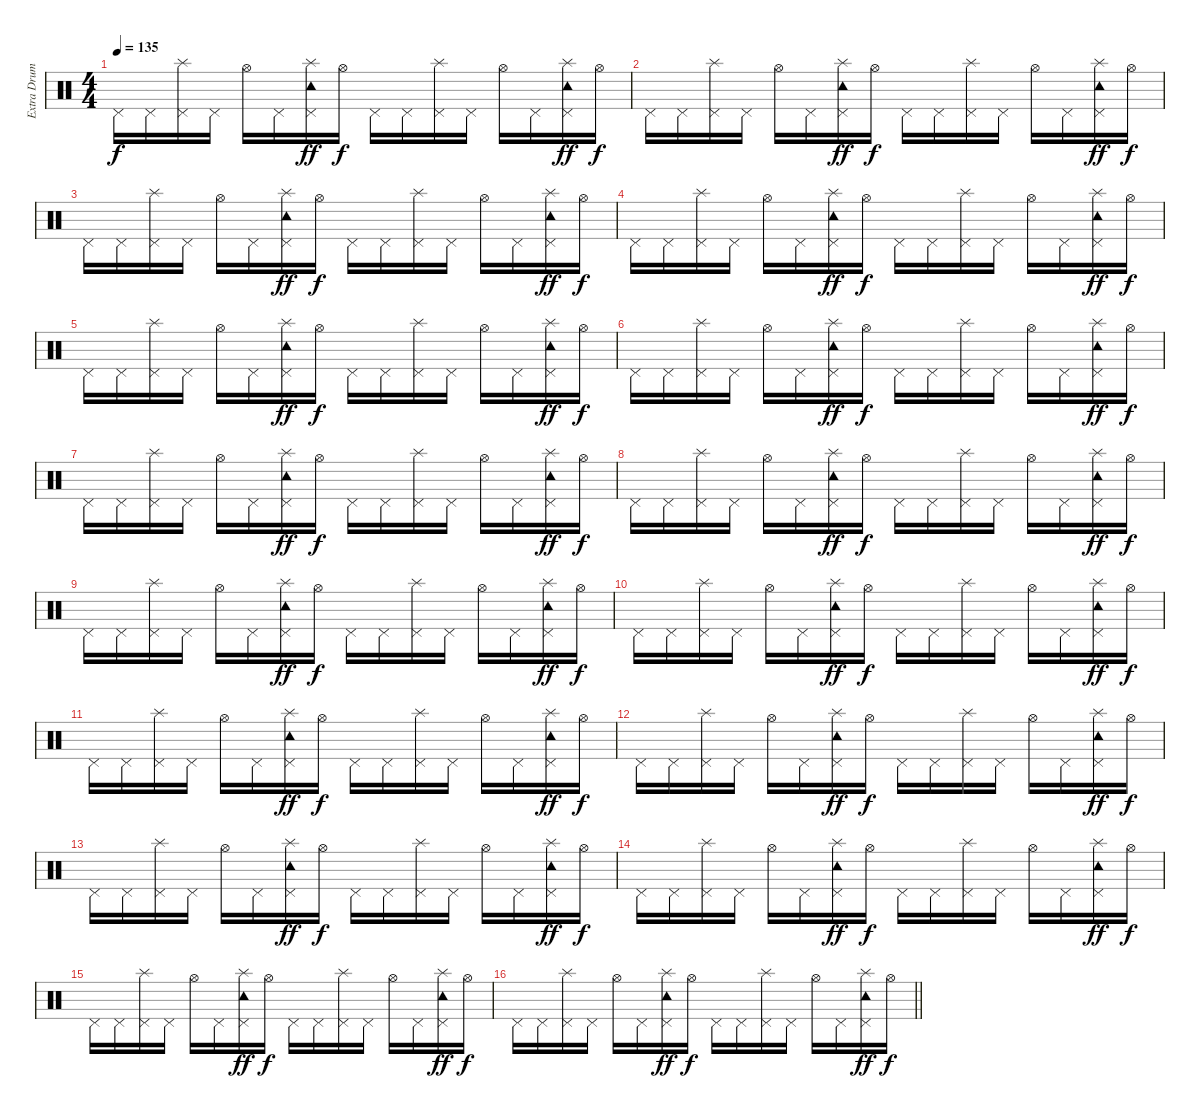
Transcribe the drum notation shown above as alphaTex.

\track ("Extra Drums" "Extra Drum") {instrument percussion}
\staff {score}
\articulation defaults
\ts (4 4)
\tempo 135
\clef neutral
\ks c "Pedal Hi-Hat (hit)".16{dy f} "Pedal Hi-Hat (hit)".16
("Pedal Hi-Hat (hit)" "Splash (hit)").16 "Pedal Hi-Hat (hit)".16 "Hi-Hat (open)".16 "Pedal Hi-Hat (hit)".16 ("Pedal Hi-Hat (hit)" "Tambourine (hit)" "Splash (hit)").16{dy ff} "Hi-Hat (open)".16{dy f} "Pedal Hi-Hat (hit)".16 "Pedal Hi-Hat (hit)".16 ("Pedal Hi-Hat (hit)" "Splash (hit)").16 "Pedal Hi-Hat (hit)".16 "Hi-Hat (open)".16 "Pedal Hi-Hat (hit)".16 ("Pedal Hi-Hat (hit)" "Tambourine (hit)" "Splash (hit)").16{dy ff} "Hi-Hat (open)".16{dy f} |
"Pedal Hi-Hat (hit)".16 "Pedal Hi-Hat (hit)".16 ("Pedal Hi-Hat (hit)" "Splash (hit)").16 "Pedal Hi-Hat (hit)".16 "Hi-Hat (open)".16 "Pedal Hi-Hat (hit)".16 ("Pedal Hi-Hat (hit)" "Tambourine (hit)" "Splash (hit)").16{dy ff} "Hi-Hat (open)".16{dy f} "Pedal Hi-Hat (hit)".16 "Pedal Hi-Hat (hit)".16 ("Pedal Hi-Hat (hit)" "Splash (hit)").16 "Pedal Hi-Hat (hit)".16 "Hi-Hat (open)".16 "Pedal Hi-Hat (hit)".16 ("Pedal Hi-Hat (hit)" "Tambourine (hit)" "Splash (hit)").16{dy ff} "Hi-Hat (open)".16{dy f} |
"Pedal Hi-Hat (hit)".16 "Pedal Hi-Hat (hit)".16 ("Pedal Hi-Hat (hit)" "Splash (hit)").16 "Pedal Hi-Hat (hit)".16 "Hi-Hat (open)".16 "Pedal Hi-Hat (hit)".16 ("Pedal Hi-Hat (hit)" "Tambourine (hit)" "Splash (hit)").16{dy ff} "Hi-Hat (open)".16{dy f} "Pedal Hi-Hat (hit)".16 "Pedal Hi-Hat (hit)".16 ("Pedal Hi-Hat (hit)" "Splash (hit)").16 "Pedal Hi-Hat (hit)".16 "Hi-Hat (open)".16 "Pedal Hi-Hat (hit)".16 ("Pedal Hi-Hat (hit)" "Tambourine (hit)" "Splash (hit)").16{dy ff} "Hi-Hat (open)".16{dy f} |
"Pedal Hi-Hat (hit)".16 "Pedal Hi-Hat (hit)".16 ("Pedal Hi-Hat (hit)" "Splash (hit)").16 "Pedal Hi-Hat (hit)".16 "Hi-Hat (open)".16 "Pedal Hi-Hat (hit)".16 ("Pedal Hi-Hat (hit)" "Tambourine (hit)" "Splash (hit)").16{dy ff} "Hi-Hat (open)".16{dy f} "Pedal Hi-Hat (hit)".16 "Pedal Hi-Hat (hit)".16 ("Pedal Hi-Hat (hit)" "Splash (hit)").16 "Pedal Hi-Hat (hit)".16 "Hi-Hat (open)".16 "Pedal Hi-Hat (hit)".16 ("Pedal Hi-Hat (hit)" "Tambourine (hit)" "Splash (hit)").16{dy ff} "Hi-Hat (open)".16{dy f} |
"Pedal Hi-Hat (hit)".16 "Pedal Hi-Hat (hit)".16 ("Pedal Hi-Hat (hit)" "Splash (hit)").16 "Pedal Hi-Hat (hit)".16 "Hi-Hat (open)".16 "Pedal Hi-Hat (hit)".16 ("Pedal Hi-Hat (hit)" "Tambourine (hit)" "Splash (hit)").16{dy ff} "Hi-Hat (open)".16{dy f} "Pedal Hi-Hat (hit)".16 "Pedal Hi-Hat (hit)".16 ("Pedal Hi-Hat (hit)" "Splash (hit)").16 "Pedal Hi-Hat (hit)".16 "Hi-Hat (open)".16 "Pedal Hi-Hat (hit)".16 ("Pedal Hi-Hat (hit)" "Tambourine (hit)" "Splash (hit)").16{dy ff} "Hi-Hat (open)".16{dy f} |
"Pedal Hi-Hat (hit)".16 "Pedal Hi-Hat (hit)".16 ("Pedal Hi-Hat (hit)" "Splash (hit)").16 "Pedal Hi-Hat (hit)".16 "Hi-Hat (open)".16 "Pedal Hi-Hat (hit)".16 ("Pedal Hi-Hat (hit)" "Tambourine (hit)" "Splash (hit)").16{dy ff} "Hi-Hat (open)".16{dy f} "Pedal Hi-Hat (hit)".16 "Pedal Hi-Hat (hit)".16 ("Pedal Hi-Hat (hit)" "Splash (hit)").16 "Pedal Hi-Hat (hit)".16 "Hi-Hat (open)".16 "Pedal Hi-Hat (hit)".16 ("Pedal Hi-Hat (hit)" "Tambourine (hit)" "Splash (hit)").16{dy ff} "Hi-Hat (open)".16{dy f} |
"Pedal Hi-Hat (hit)".16 "Pedal Hi-Hat (hit)".16 ("Pedal Hi-Hat (hit)" "Splash (hit)").16 "Pedal Hi-Hat (hit)".16 "Hi-Hat (open)".16 "Pedal Hi-Hat (hit)".16 ("Pedal Hi-Hat (hit)" "Tambourine (hit)" "Splash (hit)").16{dy ff} "Hi-Hat (open)".16{dy f} "Pedal Hi-Hat (hit)".16 "Pedal Hi-Hat (hit)".16 ("Pedal Hi-Hat (hit)" "Splash (hit)").16 "Pedal Hi-Hat (hit)".16 "Hi-Hat (open)".16 "Pedal Hi-Hat (hit)".16 ("Pedal Hi-Hat (hit)" "Tambourine (hit)" "Splash (hit)").16{dy ff} "Hi-Hat (open)".16{dy f} |
"Pedal Hi-Hat (hit)".16 "Pedal Hi-Hat (hit)".16 ("Pedal Hi-Hat (hit)" "Splash (hit)").16 "Pedal Hi-Hat (hit)".16 "Hi-Hat (open)".16 "Pedal Hi-Hat (hit)".16 ("Pedal Hi-Hat (hit)" "Tambourine (hit)" "Splash (hit)").16{dy ff} "Hi-Hat (open)".16{dy f} "Pedal Hi-Hat (hit)".16 "Pedal Hi-Hat (hit)".16 ("Pedal Hi-Hat (hit)" "Splash (hit)").16 "Pedal Hi-Hat (hit)".16 "Hi-Hat (open)".16 "Pedal Hi-Hat (hit)".16 ("Pedal Hi-Hat (hit)" "Tambourine (hit)" "Splash (hit)").16{dy ff} "Hi-Hat (open)".16{dy f} |
"Pedal Hi-Hat (hit)".16 "Pedal Hi-Hat (hit)".16 ("Pedal Hi-Hat (hit)" "Splash (hit)").16 "Pedal Hi-Hat (hit)".16 "Hi-Hat (open)".16 "Pedal Hi-Hat (hit)".16 ("Pedal Hi-Hat (hit)" "Tambourine (hit)" "Splash (hit)").16{dy ff} "Hi-Hat (open)".16{dy f} "Pedal Hi-Hat (hit)".16 "Pedal Hi-Hat (hit)".16 ("Pedal Hi-Hat (hit)" "Splash (hit)").16 "Pedal Hi-Hat (hit)".16 "Hi-Hat (open)".16 "Pedal Hi-Hat (hit)".16 ("Pedal Hi-Hat (hit)" "Tambourine (hit)" "Splash (hit)").16{dy ff} "Hi-Hat (open)".16{dy f} |
"Pedal Hi-Hat (hit)".16 "Pedal Hi-Hat (hit)".16 ("Pedal Hi-Hat (hit)" "Splash (hit)").16 "Pedal Hi-Hat (hit)".16 "Hi-Hat (open)".16 "Pedal Hi-Hat (hit)".16 ("Pedal Hi-Hat (hit)" "Tambourine (hit)" "Splash (hit)").16{dy ff} "Hi-Hat (open)".16{dy f} "Pedal Hi-Hat (hit)".16 "Pedal Hi-Hat (hit)".16 ("Pedal Hi-Hat (hit)" "Splash (hit)").16 "Pedal Hi-Hat (hit)".16 "Hi-Hat (open)".16 "Pedal Hi-Hat (hit)".16 ("Pedal Hi-Hat (hit)" "Tambourine (hit)" "Splash (hit)").16{dy ff} "Hi-Hat (open)".16{dy f} |
"Pedal Hi-Hat (hit)".16 "Pedal Hi-Hat (hit)".16 ("Pedal Hi-Hat (hit)" "Splash (hit)").16 "Pedal Hi-Hat (hit)".16 "Hi-Hat (open)".16 "Pedal Hi-Hat (hit)".16 ("Pedal Hi-Hat (hit)" "Tambourine (hit)" "Splash (hit)").16{dy ff} "Hi-Hat (open)".16{dy f} "Pedal Hi-Hat (hit)".16 "Pedal Hi-Hat (hit)".16 ("Pedal Hi-Hat (hit)" "Splash (hit)").16 "Pedal Hi-Hat (hit)".16 "Hi-Hat (open)".16 "Pedal Hi-Hat (hit)".16 ("Pedal Hi-Hat (hit)" "Tambourine (hit)" "Splash (hit)").16{dy ff} "Hi-Hat (open)".16{dy f} |
"Pedal Hi-Hat (hit)".16 "Pedal Hi-Hat (hit)".16 ("Pedal Hi-Hat (hit)" "Splash (hit)").16 "Pedal Hi-Hat (hit)".16 "Hi-Hat (open)".16 "Pedal Hi-Hat (hit)".16 ("Pedal Hi-Hat (hit)" "Tambourine (hit)" "Splash (hit)").16{dy ff} "Hi-Hat (open)".16{dy f} "Pedal Hi-Hat (hit)".16 "Pedal Hi-Hat (hit)".16 ("Pedal Hi-Hat (hit)" "Splash (hit)").16 "Pedal Hi-Hat (hit)".16 "Hi-Hat (open)".16 "Pedal Hi-Hat (hit)".16 ("Pedal Hi-Hat (hit)" "Tambourine (hit)" "Splash (hit)").16{dy ff} "Hi-Hat (open)".16{dy f} |
"Pedal Hi-Hat (hit)".16 "Pedal Hi-Hat (hit)".16 ("Pedal Hi-Hat (hit)" "Splash (hit)").16 "Pedal Hi-Hat (hit)".16 "Hi-Hat (open)".16 "Pedal Hi-Hat (hit)".16 ("Pedal Hi-Hat (hit)" "Tambourine (hit)" "Splash (hit)").16{dy ff} "Hi-Hat (open)".16{dy f} "Pedal Hi-Hat (hit)".16 "Pedal Hi-Hat (hit)".16 ("Pedal Hi-Hat (hit)" "Splash (hit)").16 "Pedal Hi-Hat (hit)".16 "Hi-Hat (open)".16 "Pedal Hi-Hat (hit)".16 ("Pedal Hi-Hat (hit)" "Tambourine (hit)" "Splash (hit)").16{dy ff} "Hi-Hat (open)".16{dy f} |
"Pedal Hi-Hat (hit)".16 "Pedal Hi-Hat (hit)".16 ("Pedal Hi-Hat (hit)" "Splash (hit)").16 "Pedal Hi-Hat (hit)".16 "Hi-Hat (open)".16 "Pedal Hi-Hat (hit)".16 ("Pedal Hi-Hat (hit)" "Tambourine (hit)" "Splash (hit)").16{dy ff} "Hi-Hat (open)".16{dy f} "Pedal Hi-Hat (hit)".16 "Pedal Hi-Hat (hit)".16 ("Pedal Hi-Hat (hit)" "Splash (hit)").16 "Pedal Hi-Hat (hit)".16 "Hi-Hat (open)".16 "Pedal Hi-Hat (hit)".16 ("Pedal Hi-Hat (hit)" "Tambourine (hit)" "Splash (hit)").16{dy ff} "Hi-Hat (open)".16{dy f} |
"Pedal Hi-Hat (hit)".16 "Pedal Hi-Hat (hit)".16 ("Pedal Hi-Hat (hit)" "Splash (hit)").16 "Pedal Hi-Hat (hit)".16 "Hi-Hat (open)".16 "Pedal Hi-Hat (hit)".16 ("Pedal Hi-Hat (hit)" "Tambourine (hit)" "Splash (hit)").16{dy ff} "Hi-Hat (open)".16{dy f} "Pedal Hi-Hat (hit)".16 "Pedal Hi-Hat (hit)".16 ("Pedal Hi-Hat (hit)" "Splash (hit)").16 "Pedal Hi-Hat (hit)".16 "Hi-Hat (open)".16 "Pedal Hi-Hat (hit)".16 ("Pedal Hi-Hat (hit)" "Tambourine (hit)" "Splash (hit)").16{dy ff} "Hi-Hat (open)".16{dy f} |
\barLineRight lightlight "Pedal Hi-Hat (hit)".16 "Pedal Hi-Hat (hit)".16
("Pedal Hi-Hat (hit)" "Splash (hit)").16 "Pedal Hi-Hat (hit)".16 "Hi-Hat (open)".16 "Pedal Hi-Hat (hit)".16 ("Pedal Hi-Hat (hit)" "Tambourine (hit)" "Splash (hit)").16{dy ff} "Hi-Hat (open)".16{dy f} "Pedal Hi-Hat (hit)".16 "Pedal Hi-Hat (hit)".16 ("Pedal Hi-Hat (hit)" "Splash (hit)").16 "Pedal Hi-Hat (hit)".16 "Hi-Hat (open)".16 "Pedal Hi-Hat (hit)".16 ("Pedal Hi-Hat (hit)" "Tambourine (hit)" "Splash (hit)").16{dy ff} "Hi-Hat (open)".16{dy f}
